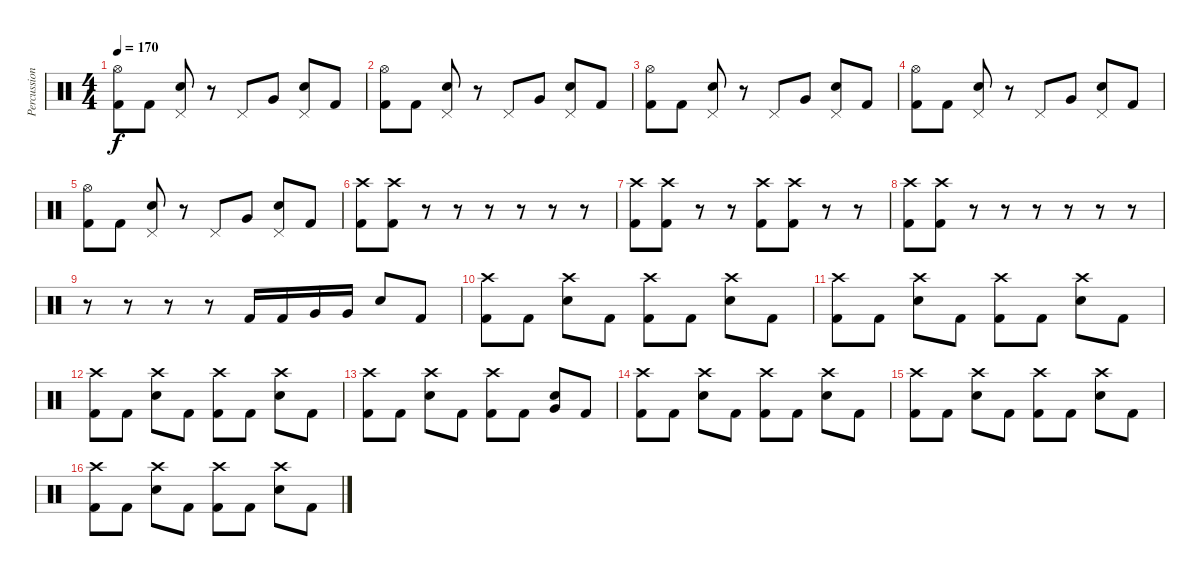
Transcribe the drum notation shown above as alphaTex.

\track ("Percussion" "Percussion") {instrument percussion}
\staff {score}
\articulation defaults
\ts (4 4)
\tempo 170
\clef neutral
\ks c
("Hi-Hat (open)" "Kick (hit) 2").8{dy f} "Kick (hit) 2".8 ("Pedal Hi-Hat (hit)" "Electric Snare (hit)").8 r.8 "Pedal Hi-Hat (hit)".8 "Very Low Tom (hit)".8 ("Pedal Hi-Hat (hit)" "Electric Snare (hit)").8 "Kick (hit) 2".8 |
("Hi-Hat (open)" "Kick (hit) 2").8 "Kick (hit) 2".8 ("Pedal Hi-Hat (hit)" "Electric Snare (hit)").8 r.8 "Pedal Hi-Hat (hit)".8 "Very Low Tom (hit)".8 ("Pedal Hi-Hat (hit)" "Electric Snare (hit)").8 "Kick (hit) 2".8 |
("Hi-Hat (open)" "Kick (hit) 2").8 "Kick (hit) 2".8 ("Pedal Hi-Hat (hit)" "Electric Snare (hit)").8 r.8 "Pedal Hi-Hat (hit)".8 "Very Low Tom (hit)".8 ("Pedal Hi-Hat (hit)" "Electric Snare (hit)").8 "Kick (hit) 2".8 |
("Hi-Hat (open)" "Kick (hit) 2").8 "Kick (hit) 2".8 ("Pedal Hi-Hat (hit)" "Electric Snare (hit)").8 r.8 "Pedal Hi-Hat (hit)".8 "Very Low Tom (hit)".8 ("Pedal Hi-Hat (hit)" "Electric Snare (hit)").8 "Kick (hit) 2".8 |
("Hi-Hat (open)" "Kick (hit) 2").8 "Kick (hit) 2".8 ("Pedal Hi-Hat (hit)" "Electric Snare (hit)").8 r.8 "Pedal Hi-Hat (hit)".8 "Very Low Tom (hit)".8 ("Pedal Hi-Hat (hit)" "Electric Snare (hit)").8 "Kick (hit) 2".8 |
("Crash high (hit)" "Kick (hit) 2").8 ("Crash high (hit)" "Kick (hit) 2").8 r.8 r.8 r.8 r.8 r.8 r.8 |
("Crash high (hit)" "Kick (hit) 2").8 ("Crash high (hit)" "Kick (hit) 2").8 r.8 r.8 ("Crash high (hit)" "Kick (hit) 2").8 ("Crash high (hit)" "Kick (hit) 2").8 r.8 r.8 |
("Crash high (hit)" "Kick (hit) 2").8 ("Crash high (hit)" "Kick (hit) 2").8 r.8 r.8 r.8 r.8 r.8 r.8 |
r.8 r.8 r.8 r.8 "Kick (hit) 2".16 "Kick (hit) 2".16 "Very Low Tom (hit)".16 "Very Low Tom (hit)".16 "Electric Snare (hit)".8 "Kick (hit) 2".8 |
("Crash high (hit)" "Kick (hit) 2").8 "Kick (hit) 2".8 ("Crash high (hit)" "Electric Snare (hit)").8 "Kick (hit) 2".8 ("Crash high (hit)" "Kick (hit) 2").8 "Kick (hit) 2".8 ("Crash high (hit)" "Electric Snare (hit)").8 "Kick (hit) 2".8 |
("Crash high (hit)" "Kick (hit) 2").8 "Kick (hit) 2".8 ("Crash high (hit)" "Electric Snare (hit)").8 "Kick (hit) 2".8 ("Crash high (hit)" "Kick (hit) 2").8 "Kick (hit) 2".8 ("Crash high (hit)" "Electric Snare (hit)").8 "Kick (hit) 2".8 |
("Crash high (hit)" "Kick (hit) 2").8 "Kick (hit) 2".8 ("Crash high (hit)" "Electric Snare (hit)").8 "Kick (hit) 2".8 ("Crash high (hit)" "Kick (hit) 2").8 "Kick (hit) 2".8 ("Crash high (hit)" "Electric Snare (hit)").8 "Kick (hit) 2".8 |
("Crash high (hit)" "Kick (hit) 2").8 "Kick (hit) 2".8 ("Crash high (hit)" "Electric Snare (hit)").8 "Kick (hit) 2".8 ("Crash high (hit)" "Kick (hit) 2").8 "Kick (hit) 2".8 ("Very Low Tom (hit)" "Electric Snare (hit)").8 "Kick (hit) 2".8 |
("Crash high (hit)" "Kick (hit) 2").8 "Kick (hit) 2".8 ("Crash high (hit)" "Electric Snare (hit)").8 "Kick (hit) 2".8 ("Crash high (hit)" "Kick (hit) 2").8 "Kick (hit) 2".8 ("Crash high (hit)" "Electric Snare (hit)").8 "Kick (hit) 2".8 |
("Crash high (hit)" "Kick (hit) 2").8 "Kick (hit) 2".8 ("Crash high (hit)" "Electric Snare (hit)").8 "Kick (hit) 2".8 ("Crash high (hit)" "Kick (hit) 2").8 "Kick (hit) 2".8 ("Crash high (hit)" "Electric Snare (hit)").8 "Kick (hit) 2".8 |
("Crash high (hit)" "Kick (hit) 2").8 "Kick (hit) 2".8 ("Crash high (hit)" "Electric Snare (hit)").8 "Kick (hit) 2".8 ("Crash high (hit)" "Kick (hit) 2").8 "Kick (hit) 2".8 ("Crash high (hit)" "Electric Snare (hit)").8 "Kick (hit) 2".8
